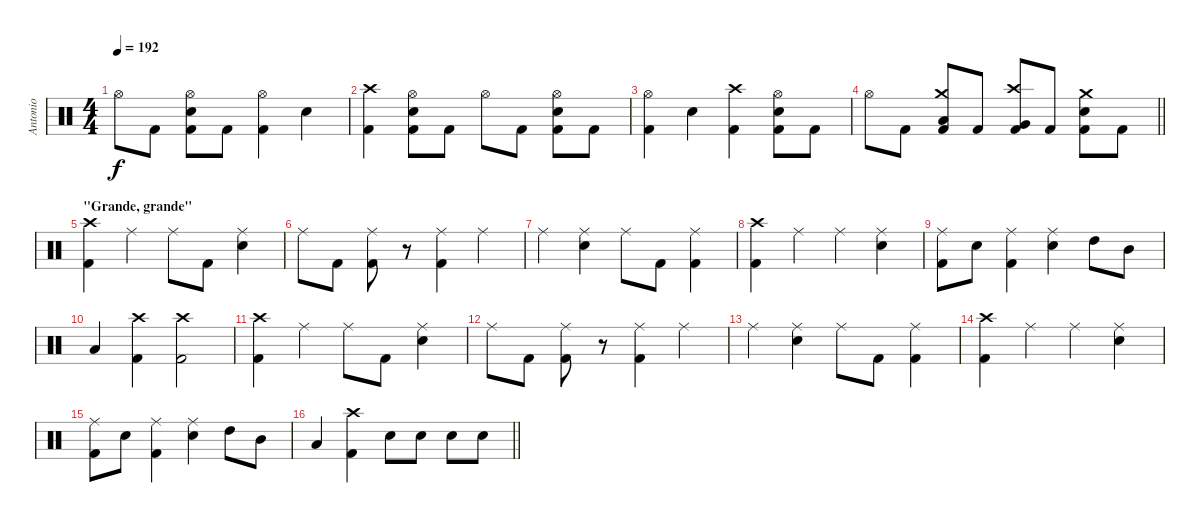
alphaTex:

\track ("Antonio" "Antonio") {instrument percussion}
\staff {score}
\articulation defaults
\ts (4 4)
\tempo 192
\clef neutral
\ks c "Hi-Hat (open)".8{dy f} "Kick (hit) 2".8
("Hi-Hat (open)" "Electric Snare (hit)" "Kick (hit) 2").8 "Kick (hit) 2".8 ("Hi-Hat (open)" "Kick (hit) 2").4 "Electric Snare (hit)".4 |
("Crash high (hit)" "Kick (hit) 2").4 ("Hi-Hat (open)" "Electric Snare (hit)" "Kick (hit) 2").8 "Kick (hit) 2".8 "Hi-Hat (open)".8 "Kick (hit) 2".8 ("Hi-Hat (open)" "Electric Snare (hit)" "Kick (hit) 2").8 "Kick (hit) 2".8 |
("Hi-Hat (open)" "Kick (hit) 2").4 "Electric Snare (hit)".4 ("Crash high (hit)" "Kick (hit) 2").4 ("Hi-Hat (open)" "Electric Snare (hit)" "Kick (hit) 2").8 "Kick (hit) 2".8 |
\barLineRight lightlight "Hi-Hat (open)".8 "Kick (hit) 2".8
("Crash medium (hit)" "Low Tom (hit)" "Kick (hit) 2").8 "Kick (hit) 2".8 ("Crash high (hit)" "Very Low Tom (hit)" "Kick (hit) 2").8 "Kick (hit) 2".8 ("Crash medium (hit)" "Electric Snare (hit)" "Kick (hit) 2").8 "Kick (hit) 2".8 |
\section ("" "\"Grande, grande\"")
("Crash high (hit)" "Kick (hit) 2").4 "Ride (middle)".4 "Ride (middle)".8 "Kick (hit) 2".8 ("Ride (middle)" "Electric Snare (hit)").4 |
"Ride (middle)".8 "Kick (hit) 2".8 ("Ride (middle)" "Kick (hit) 2").8 r.8 ("Ride (middle)" "Kick (hit) 2").4 "Ride (middle)".4 |
"Ride (middle)".4 ("Ride (middle)" "Electric Snare (hit)").4 "Ride (middle)".8 "Kick (hit) 2".8 ("Ride (middle)" "Kick (hit) 2").4 |
("Crash high (hit)" "Kick (hit) 2").4 "Ride (middle)".4 "Ride (middle)".4 ("Ride (middle)" "Electric Snare (hit)").4 |
("Ride (middle)" "Kick (hit) 2").8 "Electric Snare (hit)".8 ("Ride (middle)" "Kick (hit) 2").4 ("Ride (middle)" "Electric Snare (hit)").4 "High Tom (hit)".8 "Mid Tom (hit)".8 |
"Low Tom (hit)".4 ("Crash high (hit)" "Kick (hit) 2").4 ("Crash high (hit)" "Kick (hit) 2").2 |
("Crash high (hit)" "Kick (hit) 2").4 "Ride (middle)".4 "Ride (middle)".8 "Kick (hit) 2".8 ("Ride (middle)" "Electric Snare (hit)").4 |
"Ride (middle)".8 "Kick (hit) 2".8 ("Ride (middle)" "Kick (hit) 2").8 r.8 ("Ride (middle)" "Kick (hit) 2").4 "Ride (middle)".4 |
"Ride (middle)".4 ("Ride (middle)" "Electric Snare (hit)").4 "Ride (middle)".8 "Kick (hit) 2".8 ("Ride (middle)" "Kick (hit) 2").4 |
("Crash high (hit)" "Kick (hit) 2").4 "Ride (middle)".4 "Ride (middle)".4 ("Ride (middle)" "Electric Snare (hit)").4 |
("Ride (middle)" "Kick (hit) 2").8 "Electric Snare (hit)".8 ("Ride (middle)" "Kick (hit) 2").4 ("Ride (middle)" "Electric Snare (hit)").4 "High Tom (hit)".8 "Mid Tom (hit)".8 |
\barLineRight lightlight "Low Tom (hit)".4
("Crash high (hit)" "Kick (hit) 2").4 "Electric Snare (hit)".8 "Electric Snare (hit)".8 "Electric Snare (hit)".8 "Electric Snare (hit)".8
